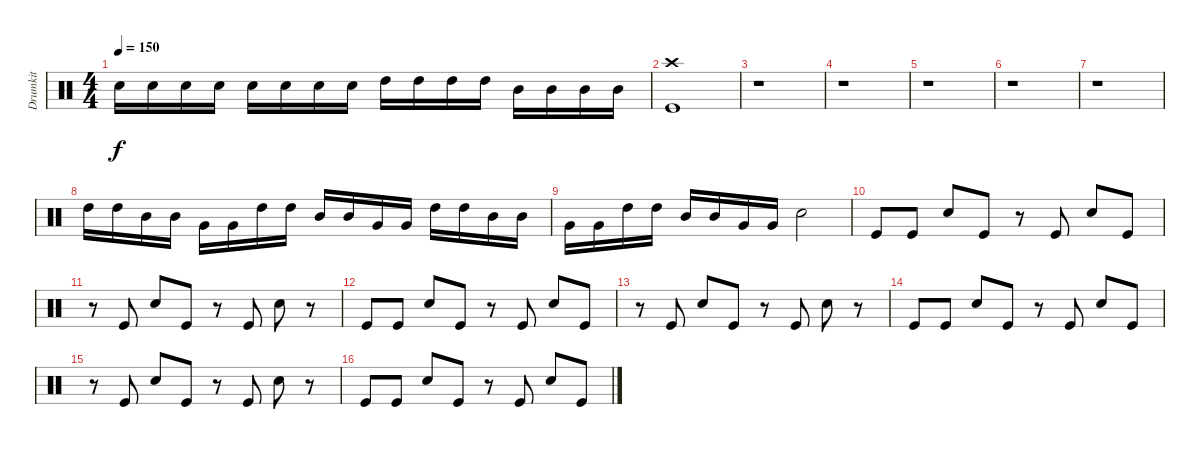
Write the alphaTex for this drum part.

\track ("Drumkit" "Drumkit") {instrument percussion}
\staff {score}
\articulation defaults
\ts (4 4)
\tempo 150
\clef neutral
\ks c "Snare (hit) 2".16{dy f} "Snare (hit) 2".16 "Snare (hit) 2".16 "Snare (hit) 2".16 "Snare (hit) 2".16 "Snare (hit) 2".16 "Snare (hit) 2".16 "Snare (hit) 2".16 "High Tom (hit)".16 "High Tom (hit)".16 "High Tom (hit)".16 "High Tom (hit)".16 "Mid Tom (hit)".16 "Mid Tom (hit)".16 "Mid Tom (hit)".16 "Mid Tom (hit)".16
|
("Kick (hit)" "Crash high (hit)").1 |
r.1 |
r.1 |
r.1 |
r.1 |
r.1 |
"High Tom (hit)".16 "High Tom (hit)".16 "Mid Tom (hit)".16 "Mid Tom (hit)".16 "Very Low Tom (hit)".16 "Very Low Tom (hit)".16 "High Tom (hit)".16 "High Tom (hit)".16 "Mid Tom (hit)".16 "Mid Tom (hit)".16 "Very Low Tom (hit)".16 "Very Low Tom (hit)".16 "High Tom (hit)".16 "High Tom (hit)".16 "Mid Tom (hit)".16 "Mid Tom (hit)".16 |
"Very Low Tom (hit)".16 "Very Low Tom (hit)".16 "High Tom (hit)".16 "High Tom (hit)".16 "Mid Tom (hit)".16 "Mid Tom (hit)".16 "Very Low Tom (hit)".16 "Very Low Tom (hit)".16 "Snare (hit) 2".2 |
"Kick (hit)".8 "Kick (hit)".8 "Snare (hit) 2".8 "Kick (hit)".8 r.8 "Kick (hit)".8 "Snare (hit) 2".8 "Kick (hit)".8 |
r.8 "Kick (hit)".8 "Snare (hit) 2".8 "Kick (hit)".8 r.8 "Kick (hit)".8 "Snare (hit) 2".8 r.8 |
"Kick (hit)".8 "Kick (hit)".8 "Snare (hit) 2".8 "Kick (hit)".8 r.8 "Kick (hit)".8 "Snare (hit) 2".8 "Kick (hit)".8 |
r.8 "Kick (hit)".8 "Snare (hit) 2".8 "Kick (hit)".8 r.8 "Kick (hit)".8 "Snare (hit) 2".8 r.8 |
"Kick (hit)".8 "Kick (hit)".8 "Snare (hit) 2".8 "Kick (hit)".8 r.8 "Kick (hit)".8 "Snare (hit) 2".8 "Kick (hit)".8 |
r.8 "Kick (hit)".8 "Snare (hit) 2".8 "Kick (hit)".8 r.8 "Kick (hit)".8 "Snare (hit) 2".8 r.8 |
"Kick (hit)".8 "Kick (hit)".8 "Snare (hit) 2".8 "Kick (hit)".8 r.8 "Kick (hit)".8 "Snare (hit) 2".8 "Kick (hit)".8
